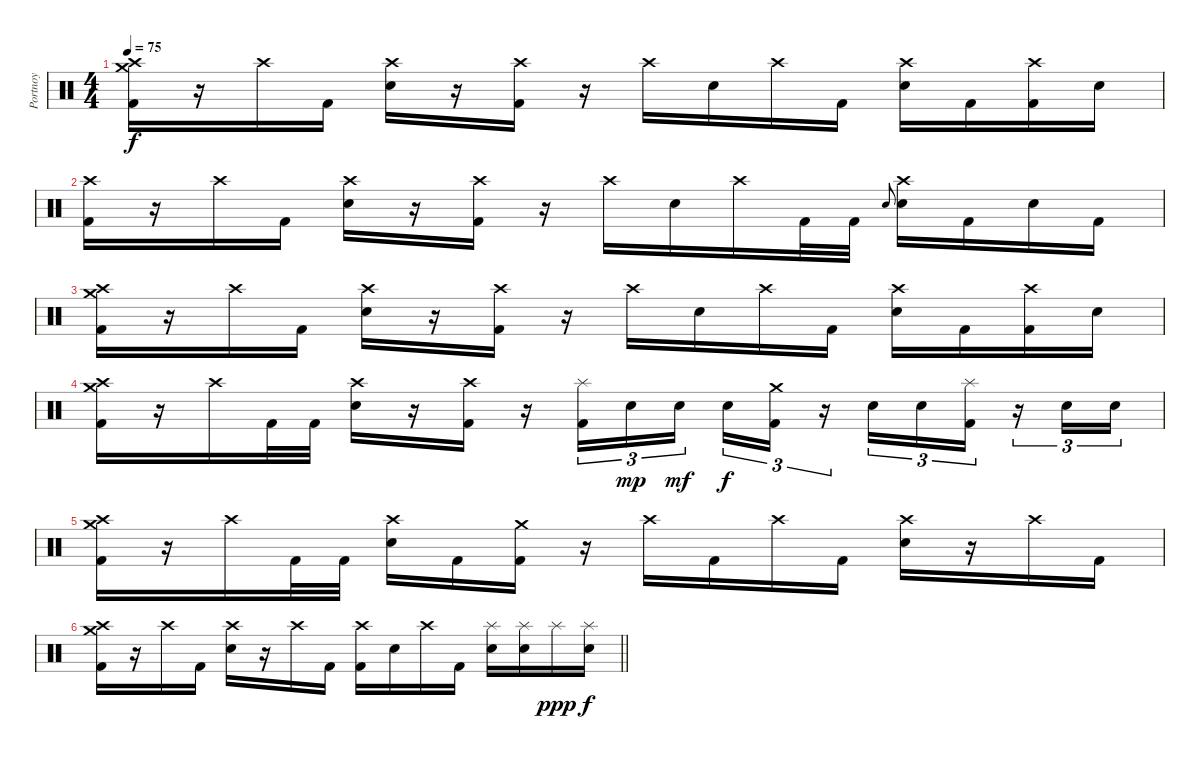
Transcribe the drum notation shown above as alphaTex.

\track ("Portnoy" "Portnoy") {instrument percussion}
\staff {score}
\articulation defaults
\ts (4 4)
\tempo 75
\clef neutral
\ks c
("Crash medium (hit)" "Crash high (hit)" "Kick (hit) 2").16{dy f} r.16 "Crash high (hit)".16 "Kick (hit) 2".16 ("Crash high (hit)" "Electric Snare (hit)").16 r.16 ("Crash high (hit)" "Kick (hit) 2").16 r.16 "Crash high (hit)".16 "Electric Snare (hit)".16 "Crash high (hit)".16 "Kick (hit) 2".16 ("Crash high (hit)" "Electric Snare (hit)").16 "Kick (hit) 2".16 ("Crash high (hit)" "Kick (hit) 2").16 "Electric Snare (hit)".16 |
("Crash high (hit)" "Kick (hit) 2").16 r.16 "Crash high (hit)".16 "Kick (hit) 2".16 ("Crash high (hit)" "Electric Snare (hit)").16 r.16 ("Crash high (hit)" "Kick (hit) 2").16 r.16 "Crash high (hit)".16 "Electric Snare (hit)".16 "Crash high (hit)".16 "Kick (hit) 2".32 "Kick (hit) 2".32 "Electric Snare (hit)".8{gr onbeat} ("Crash high (hit)" "Electric Snare (hit)").16 "Kick (hit) 2".16 "Electric Snare (hit)".16 "Kick (hit) 2".16 |
("Crash medium (hit)" "Crash high (hit)" "Kick (hit) 2").16 r.16 "Crash high (hit)".16 "Kick (hit) 2".16 ("Crash high (hit)" "Electric Snare (hit)").16 r.16 ("Crash high (hit)" "Kick (hit) 2").16 r.16 "Crash high (hit)".16 "Electric Snare (hit)".16 "Crash high (hit)".16 "Kick (hit) 2".16 ("Crash high (hit)" "Electric Snare (hit)").16 "Kick (hit) 2".16 ("Crash high (hit)" "Kick (hit) 2").16 "Electric Snare (hit)".16 |
("Crash medium (hit)" "Crash high (hit)" "Kick (hit) 2").16 r.16 "Crash high (hit)".16 "Kick (hit) 2".32 "Kick (hit) 2".32 ("Crash high (hit)" "Electric Snare (hit)").16 r.16 ("Crash high (hit)" "Kick (hit) 2").16 r.16 ("Splash (hit)" "Kick (hit) 2").16{tu (3 2)} "Electric Snare (hit)".16{tu (3 2) dy mp} "Electric Snare (hit)".16{tu (3 2) dy mf beam splitsecondary} "Electric Snare (hit)".16{tu (3 2) dy f} ("Crash medium (hit)" "Kick (hit) 2").16{tu (3 2)} r.16{tu (3 2)} "Electric Snare (hit)".16{tu (3 2)} "Electric Snare (hit)".16{tu (3 2)} ("Splash (hit)" "Kick (hit) 2").16{tu (3 2)} r.16{tu (3 2)} "Electric Snare (hit)".16{tu (3 2)} "Electric Snare (hit)".16{tu (3 2)} |
("Crash medium (hit)" "Crash high (hit)" "Kick (hit) 2").16 r.16 "Crash high (hit)".16 "Kick (hit) 2".32 "Kick (hit) 2".32 ("Crash high (hit)" "Electric Snare (hit)").16 "Kick (hit) 2".16 ("Crash medium (hit)" "Kick (hit) 2").16 r.16 "Crash high (hit)".16 "Kick (hit) 2".16 "Crash high (hit)".16 "Kick (hit) 2".16 ("Crash high (hit)" "Electric Snare (hit)").16 r.16 "Crash high (hit)".16 "Kick (hit) 2".16 |
\barLineRight lightlight
("Crash medium (hit)" "Crash high (hit)" "Kick (hit) 2").16 r.16 "Crash high (hit)".16 "Kick (hit) 2".16 ("Crash high (hit)" "Electric Snare (hit)").16 r.16 "Crash high (hit)".16 "Kick (hit) 2".16 ("Crash high (hit)" "Kick (hit) 2").16 "Electric Snare (hit)".16 "Crash high (hit)".16 "Kick (hit) 2".16 ("Splash (hit)" "Electric Snare (hit)").16 ("Splash (hit)" "Electric Snare (hit)").16 "Splash (hit)".16{dy ppp} ("Splash (hit)" "Electric Snare (hit)").16{dy f}
